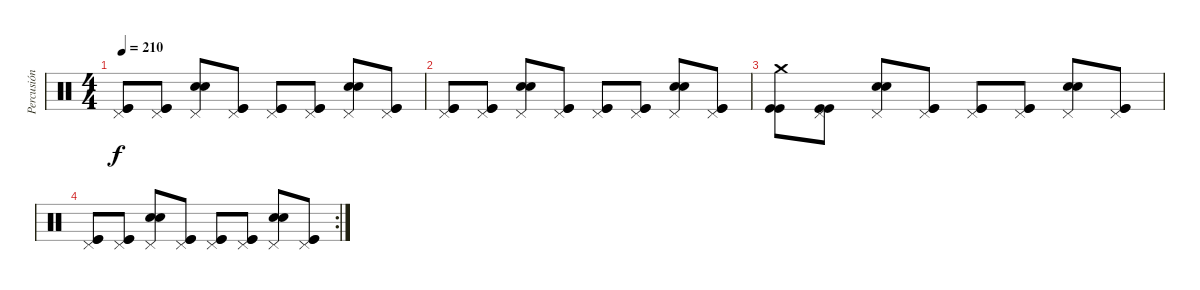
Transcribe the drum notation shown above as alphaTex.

\track ("Percusión" "Percusión") {instrument percussion}
\staff {score}
\articulation defaults
\ts (4 4)
\tempo 210
\clef neutral
\ks c
("Pedal Hi-Hat (hit)" "Kick (hit)" "Kick (hit)").8{dy f} ("Pedal Hi-Hat (hit)" "Kick (hit)" "Kick (hit)").8 ("Pedal Hi-Hat (hit)" "Snare (hit) 2" "Snare (hit) 2").8 ("Pedal Hi-Hat (hit)" "Kick (hit)" "Kick (hit)").8 ("Pedal Hi-Hat (hit)" "Kick (hit)" "Kick (hit)").8 ("Pedal Hi-Hat (hit)" "Kick (hit)" "Kick (hit)").8 ("Pedal Hi-Hat (hit)" "Snare (hit) 2" "Snare (hit) 2").8 ("Pedal Hi-Hat (hit)" "Kick (hit)" "Kick (hit)").8 |
("Pedal Hi-Hat (hit)" "Kick (hit)" "Kick (hit)").8 ("Pedal Hi-Hat (hit)" "Kick (hit)" "Kick (hit)").8 ("Pedal Hi-Hat (hit)" "Snare (hit) 2" "Snare (hit) 2").8 ("Pedal Hi-Hat (hit)" "Kick (hit)" "Kick (hit)").8 ("Pedal Hi-Hat (hit)" "Kick (hit)" "Kick (hit)").8 ("Pedal Hi-Hat (hit)" "Kick (hit)" "Kick (hit)").8 ("Pedal Hi-Hat (hit)" "Snare (hit) 2" "Snare (hit) 2").8 ("Pedal Hi-Hat (hit)" "Kick (hit)" "Kick (hit)").8 |
("Crash medium (hit)" "Kick (hit)" "Kick (hit)").8 ("Pedal Hi-Hat (hit)" "Kick (hit)" "Kick (hit)").8 ("Pedal Hi-Hat (hit)" "Snare (hit) 2" "Snare (hit) 2").8 ("Pedal Hi-Hat (hit)" "Kick (hit)" "Kick (hit)").8 ("Pedal Hi-Hat (hit)" "Kick (hit)" "Kick (hit)").8 ("Pedal Hi-Hat (hit)" "Kick (hit)" "Kick (hit)").8 ("Pedal Hi-Hat (hit)" "Snare (hit) 2" "Snare (hit) 2").8 ("Pedal Hi-Hat (hit)" "Kick (hit)" "Kick (hit)").8 |
\rc 2
("Pedal Hi-Hat (hit)" "Kick (hit)" "Kick (hit)").8 ("Pedal Hi-Hat (hit)" "Kick (hit)" "Kick (hit)").8 ("Pedal Hi-Hat (hit)" "Snare (hit) 2" "Snare (hit) 2").8 ("Pedal Hi-Hat (hit)" "Kick (hit)" "Kick (hit)").8 ("Pedal Hi-Hat (hit)" "Kick (hit)" "Kick (hit)").8 ("Pedal Hi-Hat (hit)" "Kick (hit)" "Kick (hit)").8 ("Pedal Hi-Hat (hit)" "Snare (hit) 2" "Snare (hit) 2").8 ("Pedal Hi-Hat (hit)" "Kick (hit)" "Kick (hit)").8
